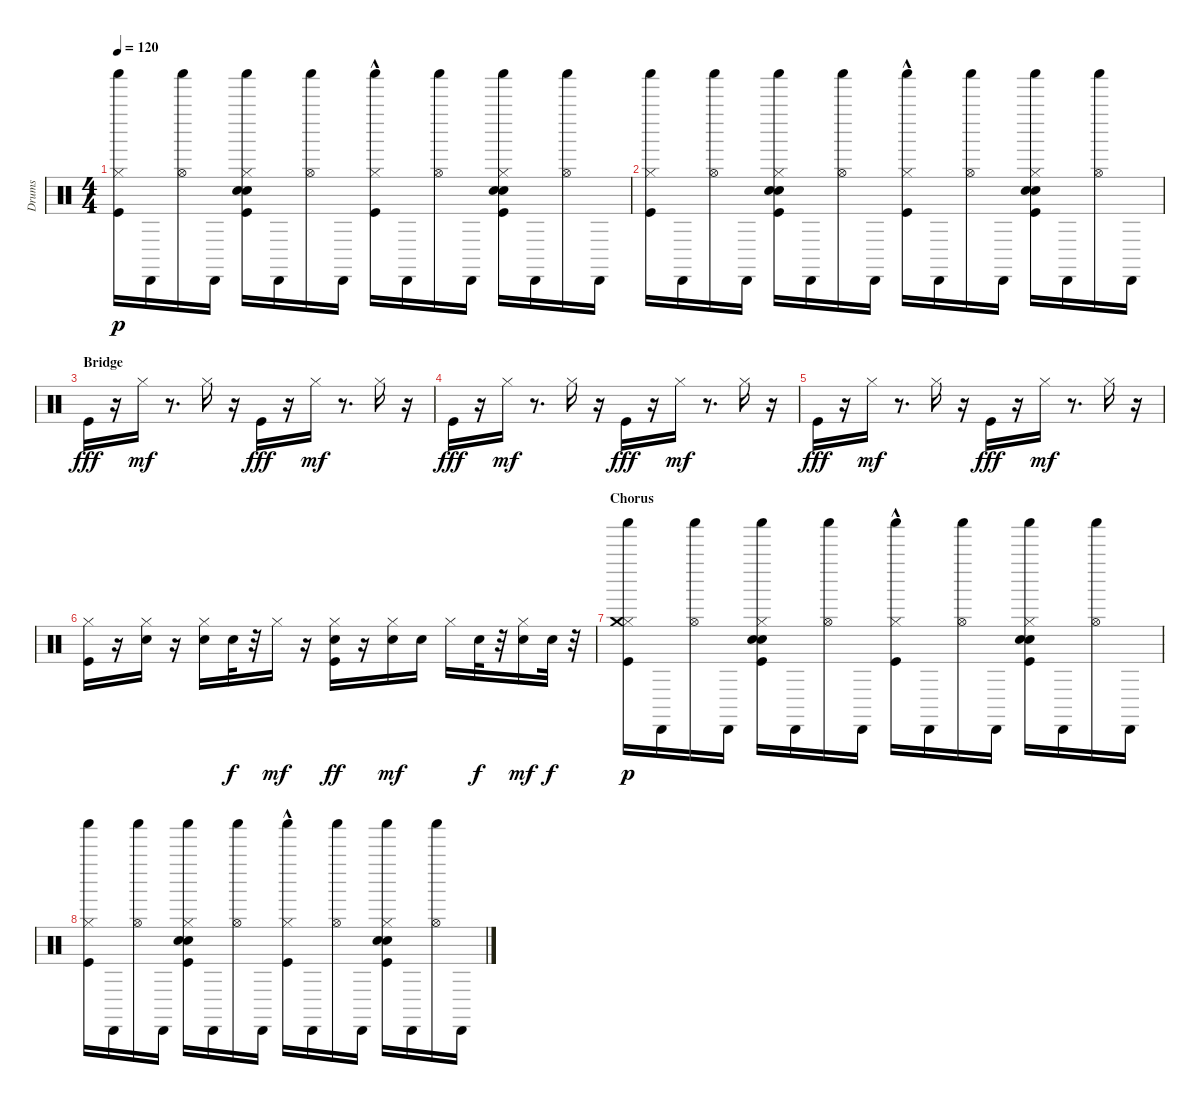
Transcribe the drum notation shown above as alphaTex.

\track ("Drums" "Drums") {instrument percussion}
\staff {score}
\articulation defaults
\ts (4 4)
\tempo 120
\clef neutral
\ks c
("Kick (hit)" "Hi-Hat (closed)" "Shaker (hit)").16{dy p} "Cabasa (hit)".16 ("Hi-Hat (open)" "Shaker (hit)").16 "Cabasa (hit)".16 ("Kick (hit)" "Snare (hit) 2" "Electric Snare (hit)" "Hi-Hat (closed)" "Shaker (hit)").16 "Cabasa (hit)".16 ("Hi-Hat (open)" "Shaker (hit)").16 "Cabasa (hit)".16 ("Kick (hit)" "Hi-Hat (closed)" "Shaker (hit)"{hac}).16 "Cabasa (hit)".16 ("Hi-Hat (open)" "Shaker (hit)").16 "Cabasa (hit)".16 ("Kick (hit)" "Snare (hit) 2" "Electric Snare (hit)" "Hi-Hat (closed)" "Shaker (hit)").16 "Cabasa (hit)".16 ("Hi-Hat (open)" "Shaker (hit)").16 "Cabasa (hit)".16 |
("Kick (hit)" "Hi-Hat (closed)" "Shaker (hit)").16 "Cabasa (hit)".16 ("Hi-Hat (open)" "Shaker (hit)").16 "Cabasa (hit)".16 ("Kick (hit)" "Snare (hit) 2" "Electric Snare (hit)" "Hi-Hat (closed)" "Shaker (hit)").16 "Cabasa (hit)".16 ("Hi-Hat (open)" "Shaker (hit)").16 "Cabasa (hit)".16 ("Kick (hit)" "Hi-Hat (closed)" "Shaker (hit)"{hac}).16 "Cabasa (hit)".16 ("Hi-Hat (open)" "Shaker (hit)").16 "Cabasa (hit)".16 ("Kick (hit)" "Snare (hit) 2" "Electric Snare (hit)" "Hi-Hat (closed)" "Shaker (hit)").16 "Cabasa (hit)".16 ("Hi-Hat (open)" "Shaker (hit)").16 "Cabasa (hit)".16 |
\section ("" "Bridge")
"Kick (hit)".16{dy fff} r.16 "Hi-Hat (closed)".16{dy mf} r.8{d} "Hi-Hat (closed)".16 r.16 "Kick (hit)".16{dy fff} r.16 "Hi-Hat (closed)".16{dy mf} r.8{d} "Hi-Hat (closed)".16 r.16 |
"Kick (hit)".16{dy fff} r.16 "Hi-Hat (closed)".16{dy mf} r.8{d} "Hi-Hat (closed)".16 r.16 "Kick (hit)".16{dy fff} r.16 "Hi-Hat (closed)".16{dy mf} r.8{d} "Hi-Hat (closed)".16 r.16 |
"Kick (hit)".16{dy fff} r.16 "Hi-Hat (closed)".16{dy mf} r.8{d} "Hi-Hat (closed)".16 r.16 "Kick (hit)".16{dy fff} r.16 "Hi-Hat (closed)".16{dy mf} r.8{d} "Hi-Hat (closed)".16 r.16 |
("Kick (hit)" "Hi-Hat (closed)").16 r.16 ("Snare (hit) 2" "Hi-Hat (closed)").16 r.16 ("Hi-Hat (closed)" "Snare (hit) 2").16 "Snare (hit) 2".32{dy f} r.32 "Hi-Hat (closed)".16{dy mf} r.16 ("Hi-Hat (closed)" "Kick (hit)" "Snare (hit) 2").16{dy ff} r.16 ("Snare (hit) 2" "Hi-Hat (closed)").16{dy mf} "Snare (hit) 2".16 "Hi-Hat (closed)".16 "Snare (hit) 2".32{dy f} r.32 ("Snare (hit) 2" "Hi-Hat (closed)").16{dy mf} "Snare (hit) 2".32{dy f} r.32 |
\section ("" "Chorus")
("Kick (hit)" "Hi-Hat (closed)" "Crash medium (hit)" "Shaker (hit)").16{dy p} "Cabasa (hit)".16 ("Hi-Hat (open)" "Shaker (hit)").16 "Cabasa (hit)".16 ("Kick (hit)" "Snare (hit) 2" "Electric Snare (hit)" "Hi-Hat (closed)" "Shaker (hit)").16 "Cabasa (hit)".16 ("Hi-Hat (open)" "Shaker (hit)").16 "Cabasa (hit)".16 ("Kick (hit)" "Hi-Hat (closed)" "Shaker (hit)"{hac}).16 "Cabasa (hit)".16 ("Hi-Hat (open)" "Shaker (hit)").16 "Cabasa (hit)".16 ("Kick (hit)" "Snare (hit) 2" "Electric Snare (hit)" "Hi-Hat (closed)" "Shaker (hit)").16 "Cabasa (hit)".16 ("Hi-Hat (open)" "Shaker (hit)").16 "Cabasa (hit)".16 |
("Kick (hit)" "Hi-Hat (closed)" "Shaker (hit)").16 "Cabasa (hit)".16 ("Hi-Hat (open)" "Shaker (hit)").16 "Cabasa (hit)".16 ("Kick (hit)" "Snare (hit) 2" "Electric Snare (hit)" "Hi-Hat (closed)" "Shaker (hit)").16 "Cabasa (hit)".16 ("Hi-Hat (open)" "Shaker (hit)").16 "Cabasa (hit)".16 ("Kick (hit)" "Hi-Hat (closed)" "Shaker (hit)"{hac}).16 "Cabasa (hit)".16 ("Hi-Hat (open)" "Shaker (hit)").16 "Cabasa (hit)".16 ("Kick (hit)" "Snare (hit) 2" "Electric Snare (hit)" "Hi-Hat (closed)" "Shaker (hit)").16 "Cabasa (hit)".16 ("Hi-Hat (open)" "Shaker (hit)").16 "Cabasa (hit)".16
